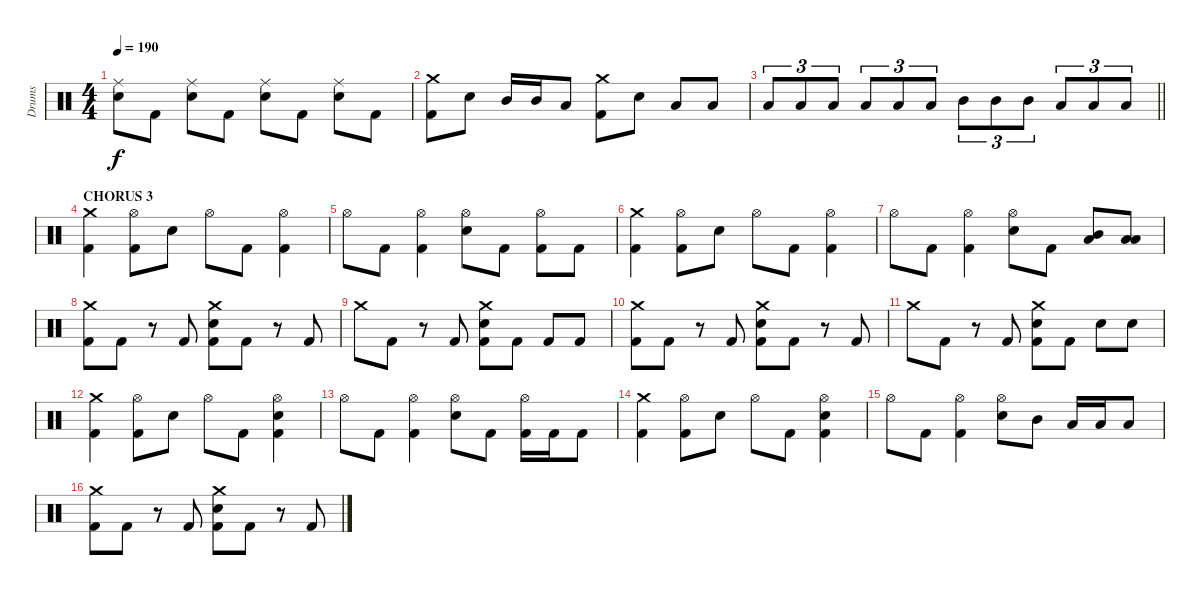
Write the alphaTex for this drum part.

\track ("Drums" "Drums") {instrument percussion}
\staff {score}
\articulation defaults
\ts (4 4)
\tempo 190
\clef neutral
\ks c
("Ride (middle)" "Electric Snare (hit)").8{dy f} "Kick (hit) 2".8 ("Ride (middle)" "Electric Snare (hit)").8 "Kick (hit) 2".8 ("Ride (middle)" "Electric Snare (hit)").8 "Kick (hit) 2".8 ("Ride (middle)" "Electric Snare (hit)").8 "Kick (hit) 2".8 |
("Crash medium (hit)" "Kick (hit) 2").8 "Electric Snare (hit)".8 "Mid Tom (hit)".16 "Mid Tom (hit)".16 "Low Tom (hit)".8 ("Crash medium (hit)" "Kick (hit) 2").8 "Electric Snare (hit)".8 "Low Tom (hit)".8 "Low Floor Tom (hit)".8 |
\barLineRight lightlight "Low Tom (hit)".8{tu (3 2)} "Low Tom (hit)".8{tu (3 2)} "Low Tom (hit)".8{tu (3 2)} "Low Floor Tom (hit)".8{tu (3 2)} "Low Floor Tom (hit)".8{tu (3 2)} "Low Floor Tom (hit)".8{tu (3 2)} "Mid Tom (hit)".8{tu (3 2)} "Mid Tom (hit)".8{tu (3 2)} "Mid Tom (hit)".8{tu (3 2)} "Low Tom (hit)".8{tu (3 2)} "Low Tom (hit)".8{tu (3 2)} "Low Tom (hit)".8{tu (3 2)}
|
\section ("" "CHORUS 3")
("Crash medium (hit)" "Kick (hit) 2").4 ("Hi-Hat (open)" "Kick (hit) 2").8 "Electric Snare (hit)".8 "Hi-Hat (open)".8 "Kick (hit) 2".8 ("Hi-Hat (open)" "Kick (hit) 2").4 |
"Hi-Hat (open)".8 "Kick (hit) 2".8 ("Hi-Hat (open)" "Kick (hit) 2").4 ("Hi-Hat (open)" "Electric Snare (hit)").8 "Kick (hit) 2".8 ("Hi-Hat (open)" "Kick (hit) 2").8 "Kick (hit) 2".8 |
("Crash medium (hit)" "Kick (hit) 2").4 ("Hi-Hat (open)" "Kick (hit) 2").8 "Electric Snare (hit)".8 "Hi-Hat (open)".8 "Kick (hit) 2".8 ("Hi-Hat (open)" "Kick (hit) 2").4 |
"Hi-Hat (open)".8 "Kick (hit) 2".8 ("Hi-Hat (open)" "Kick (hit) 2").4 ("Hi-Hat (open)" "Electric Snare (hit)").8 "Kick (hit) 2".8 ("Mid Tom (hit)" "Low Tom (hit)").8 ("Low Tom (hit)" "Low Floor Tom (hit)").8 |
("Crash medium (hit)" "Kick (hit) 2").8 "Kick (hit) 2".8 r.8 "Kick (hit) 2".8 ("Crash medium (hit)" "Electric Snare (hit)" "Kick (hit) 2").8 "Kick (hit) 2".8 r.8 "Kick (hit) 2".8 |
"Crash medium (hit)".8 "Kick (hit) 2".8 r.8 "Kick (hit) 2".8 ("Crash medium (hit)" "Electric Snare (hit)" "Kick (hit) 2").8 "Kick (hit) 2".8 "Kick (hit) 2".8 "Kick (hit) 2".8 |
("Crash medium (hit)" "Kick (hit) 2").8 "Kick (hit) 2".8 r.8 "Kick (hit) 2".8 ("Crash medium (hit)" "Electric Snare (hit)" "Kick (hit) 2").8 "Kick (hit) 2".8 r.8 "Kick (hit) 2".8 |
"Crash medium (hit)".8 "Kick (hit) 2".8 r.8 "Kick (hit) 2".8 ("Crash medium (hit)" "Electric Snare (hit)" "Kick (hit) 2").8 "Kick (hit) 2".8 "Electric Snare (hit)".8 "Electric Snare (hit)".8 |
("Crash medium (hit)" "Kick (hit) 2").4 ("Hi-Hat (open)" "Kick (hit) 2").8 "Electric Snare (hit)".8 "Hi-Hat (open)".8 "Kick (hit) 2".8 ("Hi-Hat (open)" "Electric Snare (hit)" "Kick (hit) 2").4 |
"Hi-Hat (open)".8 "Kick (hit) 2".8 ("Hi-Hat (open)" "Kick (hit) 2").4 ("Hi-Hat (open)" "Electric Snare (hit)").8 "Kick (hit) 2".8 ("Hi-Hat (open)" "Kick (hit) 2").16 "Kick (hit) 2".16 "Kick (hit) 2".8 |
("Crash medium (hit)" "Kick (hit) 2").4 ("Hi-Hat (open)" "Kick (hit) 2").8 "Electric Snare (hit)".8 "Hi-Hat (open)".8 "Kick (hit) 2".8 ("Hi-Hat (open)" "Electric Snare (hit)" "Kick (hit) 2").4 |
"Hi-Hat (open)".8 "Kick (hit) 2".8 ("Hi-Hat (open)" "Kick (hit) 2").4 ("Hi-Hat (open)" "Electric Snare (hit)").8 "Mid Tom (hit)".8 "Low Tom (hit)".16 "Low Tom (hit)".16 "Low Floor Tom (hit)".8 |
("Crash medium (hit)" "Kick (hit) 2").8 "Kick (hit) 2".8 r.8 "Kick (hit) 2".8 ("Crash medium (hit)" "Electric Snare (hit)" "Kick (hit) 2").8 "Kick (hit) 2".8 r.8 "Kick (hit) 2".8
